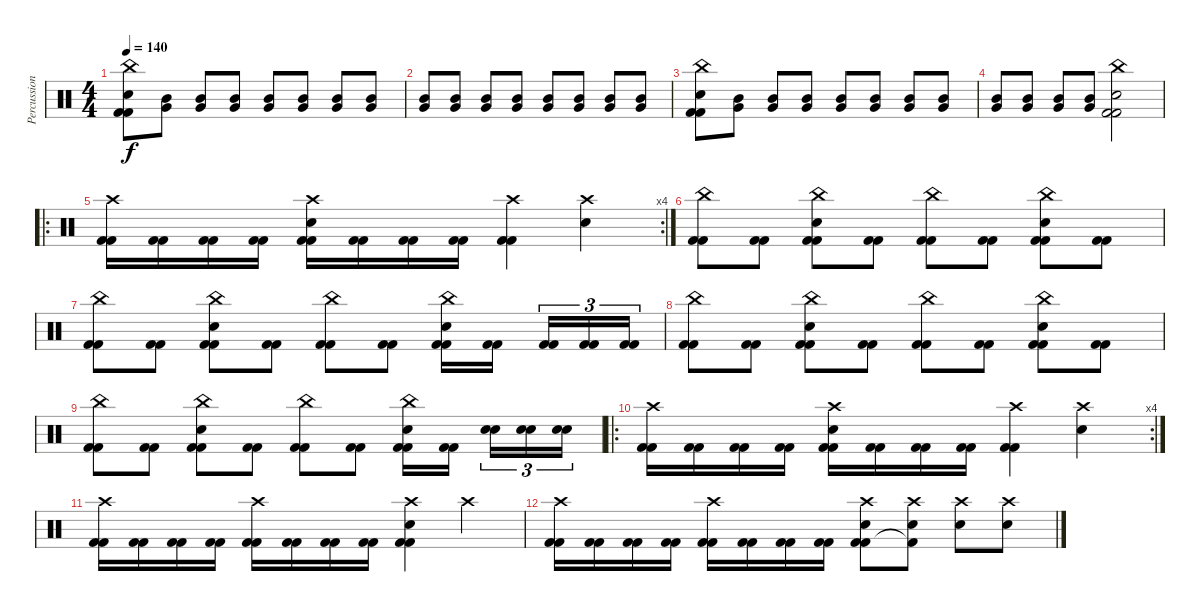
\track ("Percussion" "Percussion") {instrument percussion}
\staff {score}
\articulation defaults
\ts (4 4)
\tempo 140
\clef neutral
\ks c
("China (hit)" "Electric Snare (hit)" "Kick (hit) 2" "Kick (hit) 2").8{dy f} ("Mid Tom (hit)" "Very Low Tom (hit)").8 ("Mid Tom (hit)" "Very Low Tom (hit)").8 ("Mid Tom (hit)" "Very Low Tom (hit)").8 ("Mid Tom (hit)" "Very Low Tom (hit)").8 ("Mid Tom (hit)" "Very Low Tom (hit)").8 ("Mid Tom (hit)" "Very Low Tom (hit)").8 ("Mid Tom (hit)" "Very Low Tom (hit)").8 |
("Mid Tom (hit)" "Very Low Tom (hit)").8 ("Mid Tom (hit)" "Very Low Tom (hit)").8 ("Mid Tom (hit)" "Very Low Tom (hit)").8 ("Mid Tom (hit)" "Very Low Tom (hit)").8 ("Mid Tom (hit)" "Very Low Tom (hit)").8 ("Mid Tom (hit)" "Very Low Tom (hit)").8 ("Mid Tom (hit)" "Very Low Tom (hit)").8 ("Mid Tom (hit)" "Very Low Tom (hit)").8 |
("China (hit)" "Electric Snare (hit)" "Kick (hit) 2" "Kick (hit) 2").8 ("Mid Tom (hit)" "Very Low Tom (hit)").8 ("Mid Tom (hit)" "Very Low Tom (hit)").8 ("Mid Tom (hit)" "Very Low Tom (hit)").8 ("Mid Tom (hit)" "Very Low Tom (hit)").8 ("Mid Tom (hit)" "Very Low Tom (hit)").8 ("Mid Tom (hit)" "Very Low Tom (hit)").8 ("Mid Tom (hit)" "Very Low Tom (hit)").8 |
("Mid Tom (hit)" "Very Low Tom (hit)").8 ("Mid Tom (hit)" "Very Low Tom (hit)").8 ("Mid Tom (hit)" "Very Low Tom (hit)").8 ("Mid Tom (hit)" "Very Low Tom (hit)").8 ("China (hit)" "Electric Snare (hit)" "Kick (hit) 2" "Kick (hit) 2").2 |
\ro
\rc 4
("Crash high (hit)" "Kick (hit) 2" "Kick (hit) 2").16 ("Kick (hit) 2" "Kick (hit) 2").16 ("Kick (hit) 2" "Kick (hit) 2").16 ("Kick (hit) 2" "Kick (hit) 2").16 ("Crash high (hit)" "Electric Snare (hit)" "Kick (hit) 2" "Kick (hit) 2").16 ("Kick (hit) 2" "Kick (hit) 2").16 ("Kick (hit) 2" "Kick (hit) 2").16 ("Kick (hit) 2" "Kick (hit) 2").16 ("Crash high (hit)" "Kick (hit) 2" "Kick (hit) 2").4 ("Crash high (hit)" "Electric Snare (hit)").4 |
("China (hit)" "Kick (hit) 2" "Kick (hit) 2").8 ("Kick (hit) 2" "Kick (hit) 2").8 ("China (hit)" "Electric Snare (hit)" "Kick (hit) 2" "Kick (hit) 2").8 ("Kick (hit) 2" "Kick (hit) 2").8 ("China (hit)" "Kick (hit) 2" "Kick (hit) 2").8 ("Kick (hit) 2" "Kick (hit) 2").8 ("China (hit)" "Electric Snare (hit)" "Kick (hit) 2" "Kick (hit) 2").8 ("Kick (hit) 2" "Kick (hit) 2").8 |
("China (hit)" "Kick (hit) 2" "Kick (hit) 2").8 ("Kick (hit) 2" "Kick (hit) 2").8 ("China (hit)" "Electric Snare (hit)" "Kick (hit) 2" "Kick (hit) 2").8 ("Kick (hit) 2" "Kick (hit) 2").8 ("China (hit)" "Kick (hit) 2" "Kick (hit) 2").8 ("Kick (hit) 2" "Kick (hit) 2").8 ("China (hit)" "Electric Snare (hit)" "Kick (hit) 2" "Kick (hit) 2").16 ("Kick (hit) 2" "Kick (hit) 2").16 ("Kick (hit) 2" "Kick (hit) 2").16{tu (3 2)} ("Kick (hit) 2" "Kick (hit) 2").16{tu (3 2)} ("Kick (hit) 2" "Kick (hit) 2").16{tu (3 2)} |
("China (hit)" "Kick (hit) 2" "Kick (hit) 2").8 ("Kick (hit) 2" "Kick (hit) 2").8 ("China (hit)" "Electric Snare (hit)" "Kick (hit) 2" "Kick (hit) 2").8 ("Kick (hit) 2" "Kick (hit) 2").8 ("China (hit)" "Kick (hit) 2" "Kick (hit) 2").8 ("Kick (hit) 2" "Kick (hit) 2").8 ("China (hit)" "Electric Snare (hit)" "Kick (hit) 2" "Kick (hit) 2").8 ("Kick (hit) 2" "Kick (hit) 2").8 |
("China (hit)" "Kick (hit) 2" "Kick (hit) 2").8 ("Kick (hit) 2" "Kick (hit) 2").8 ("China (hit)" "Electric Snare (hit)" "Kick (hit) 2" "Kick (hit) 2").8 ("Kick (hit) 2" "Kick (hit) 2").8 ("China (hit)" "Kick (hit) 2" "Kick (hit) 2").8 ("Kick (hit) 2" "Kick (hit) 2").8 ("China (hit)" "Electric Snare (hit)" "Kick (hit) 2" "Kick (hit) 2").16 ("Kick (hit) 2" "Kick (hit) 2").16 ("Electric Snare (hit)" "Electric Snare (hit)").16{tu (3 2)} ("Electric Snare (hit)" "Electric Snare (hit)").16{tu (3 2)} ("Electric Snare (hit)" "Electric Snare (hit)").16{tu (3 2)} |
\ro
\rc 4
("Crash high (hit)" "Kick (hit) 2" "Kick (hit) 2").16 ("Kick (hit) 2" "Kick (hit) 2").16 ("Kick (hit) 2" "Kick (hit) 2").16 ("Kick (hit) 2" "Kick (hit) 2").16 ("Crash high (hit)" "Electric Snare (hit)" "Kick (hit) 2" "Kick (hit) 2").16 ("Kick (hit) 2" "Kick (hit) 2").16 ("Kick (hit) 2" "Kick (hit) 2").16 ("Kick (hit) 2" "Kick (hit) 2").16 ("Crash high (hit)" "Kick (hit) 2" "Kick (hit) 2").4 ("Crash high (hit)" "Electric Snare (hit)").4 |
("Crash high (hit)" "Kick (hit) 2" "Kick (hit) 2").16 ("Kick (hit) 2" "Kick (hit) 2").16 ("Kick (hit) 2" "Kick (hit) 2").16 ("Kick (hit) 2" "Kick (hit) 2").16 ("Crash high (hit)" "Kick (hit) 2" "Kick (hit) 2").16 ("Kick (hit) 2" "Kick (hit) 2").16 ("Kick (hit) 2" "Kick (hit) 2").16 ("Kick (hit) 2" "Kick (hit) 2").16 ("Crash high (hit)" "Electric Snare (hit)" "Kick (hit) 2" "Kick (hit) 2").4 "Crash high (hit)".4 |
("Crash high (hit)" "Kick (hit) 2" "Kick (hit) 2").16 ("Kick (hit) 2" "Kick (hit) 2").16 ("Kick (hit) 2" "Kick (hit) 2").16 ("Kick (hit) 2" "Kick (hit) 2").16 ("Crash high (hit)" "Kick (hit) 2" "Kick (hit) 2").16 ("Kick (hit) 2" "Kick (hit) 2").16 ("Kick (hit) 2" "Kick (hit) 2").16 ("Kick (hit) 2" "Kick (hit) 2").16 ("Crash high (hit)" "Electric Snare (hit)" "Kick (hit) 2" "Kick (hit) 2").8 ("Crash high (hit)" "Electric Snare (hit)" "Kick (hit) 2"{t}).8 ("Crash high (hit)" "Electric Snare (hit)").8 ("Crash high (hit)" "Electric Snare (hit)").8
